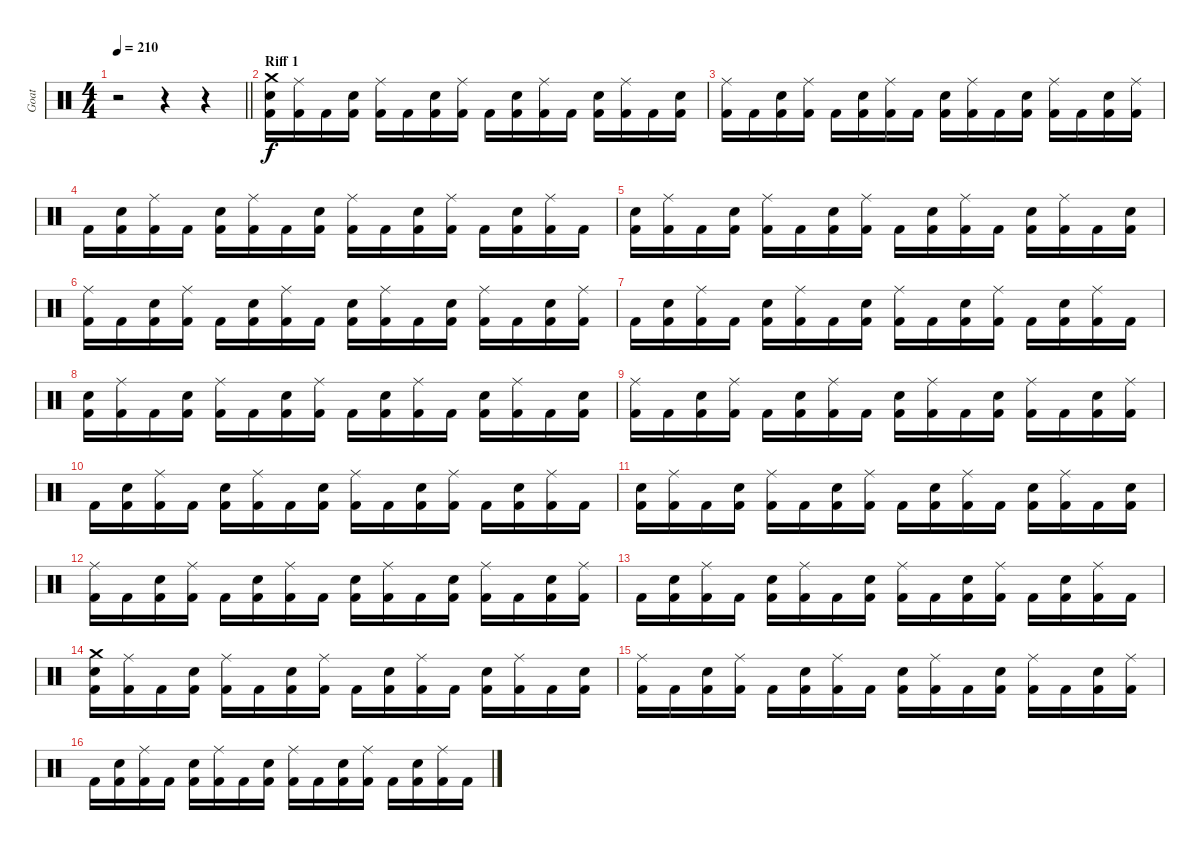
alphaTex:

\track ("Goat" "Goat") {instrument percussion}
\staff {score}
\articulation defaults
\ts (4 4)
\tempo 210
\clef neutral
\barLineRight lightlight
\ks c
r.2{dy f} r.4 r.4 |
\section ("" "Riff 1")
("Crash medium (hit)" "Snare (hit) 2" "Kick (hit) 2").16 ("Ride (middle)" "Kick (hit) 2").16 "Kick (hit) 2".16 ("Snare (hit) 2" "Kick (hit) 2").16 ("Ride (middle)" "Kick (hit) 2").16 "Kick (hit) 2".16 ("Snare (hit) 2" "Kick (hit) 2").16 ("Ride (middle)" "Kick (hit) 2").16 "Kick (hit) 2".16 ("Snare (hit) 2" "Kick (hit) 2").16 ("Ride (middle)" "Kick (hit) 2").16 "Kick (hit) 2".16 ("Snare (hit) 2" "Kick (hit) 2").16 ("Ride (middle)" "Kick (hit) 2").16 "Kick (hit) 2".16 ("Snare (hit) 2" "Kick (hit) 2").16 |
("Ride (middle)" "Kick (hit) 2").16 "Kick (hit) 2".16 ("Snare (hit) 2" "Kick (hit) 2").16 ("Ride (middle)" "Kick (hit) 2").16 "Kick (hit) 2".16 ("Snare (hit) 2" "Kick (hit) 2").16 ("Ride (middle)" "Kick (hit) 2").16 "Kick (hit) 2".16 ("Snare (hit) 2" "Kick (hit) 2").16 ("Ride (middle)" "Kick (hit) 2").16 "Kick (hit) 2".16 ("Snare (hit) 2" "Kick (hit) 2").16 ("Ride (middle)" "Kick (hit) 2").16 "Kick (hit) 2".16 ("Snare (hit) 2" "Kick (hit) 2").16 ("Ride (middle)" "Kick (hit) 2").16 |
"Kick (hit) 2".16 ("Snare (hit) 2" "Kick (hit) 2").16 ("Ride (middle)" "Kick (hit) 2").16 "Kick (hit) 2".16 ("Snare (hit) 2" "Kick (hit) 2").16 ("Ride (middle)" "Kick (hit) 2").16 "Kick (hit) 2".16 ("Snare (hit) 2" "Kick (hit) 2").16 ("Ride (middle)" "Kick (hit) 2").16 "Kick (hit) 2".16 ("Snare (hit) 2" "Kick (hit) 2").16 ("Ride (middle)" "Kick (hit) 2").16 "Kick (hit) 2".16 ("Snare (hit) 2" "Kick (hit) 2").16 ("Ride (middle)" "Kick (hit) 2").16 "Kick (hit) 2".16 |
("Snare (hit) 2" "Kick (hit) 2").16 ("Ride (middle)" "Kick (hit) 2").16 "Kick (hit) 2".16 ("Snare (hit) 2" "Kick (hit) 2").16 ("Ride (middle)" "Kick (hit) 2").16 "Kick (hit) 2".16 ("Snare (hit) 2" "Kick (hit) 2").16 ("Ride (middle)" "Kick (hit) 2").16 "Kick (hit) 2".16 ("Snare (hit) 2" "Kick (hit) 2").16 ("Ride (middle)" "Kick (hit) 2").16 "Kick (hit) 2".16 ("Snare (hit) 2" "Kick (hit) 2").16 ("Ride (middle)" "Kick (hit) 2").16 "Kick (hit) 2".16 ("Snare (hit) 2" "Kick (hit) 2").16 |
("Ride (middle)" "Kick (hit) 2").16 "Kick (hit) 2".16 ("Snare (hit) 2" "Kick (hit) 2").16 ("Ride (middle)" "Kick (hit) 2").16 "Kick (hit) 2".16 ("Snare (hit) 2" "Kick (hit) 2").16 ("Ride (middle)" "Kick (hit) 2").16 "Kick (hit) 2".16 ("Snare (hit) 2" "Kick (hit) 2").16 ("Ride (middle)" "Kick (hit) 2").16 "Kick (hit) 2".16 ("Snare (hit) 2" "Kick (hit) 2").16 ("Ride (middle)" "Kick (hit) 2").16 "Kick (hit) 2".16 ("Snare (hit) 2" "Kick (hit) 2").16 ("Ride (middle)" "Kick (hit) 2").16 |
"Kick (hit) 2".16 ("Snare (hit) 2" "Kick (hit) 2").16 ("Ride (middle)" "Kick (hit) 2").16 "Kick (hit) 2".16 ("Snare (hit) 2" "Kick (hit) 2").16 ("Ride (middle)" "Kick (hit) 2").16 "Kick (hit) 2".16 ("Snare (hit) 2" "Kick (hit) 2").16 ("Ride (middle)" "Kick (hit) 2").16 "Kick (hit) 2".16 ("Snare (hit) 2" "Kick (hit) 2").16 ("Ride (middle)" "Kick (hit) 2").16 "Kick (hit) 2".16 ("Snare (hit) 2" "Kick (hit) 2").16 ("Ride (middle)" "Kick (hit) 2").16 "Kick (hit) 2".16 |
("Snare (hit) 2" "Kick (hit) 2").16 ("Ride (middle)" "Kick (hit) 2").16 "Kick (hit) 2".16 ("Snare (hit) 2" "Kick (hit) 2").16 ("Ride (middle)" "Kick (hit) 2").16 "Kick (hit) 2".16 ("Snare (hit) 2" "Kick (hit) 2").16 ("Ride (middle)" "Kick (hit) 2").16 "Kick (hit) 2".16 ("Snare (hit) 2" "Kick (hit) 2").16 ("Ride (middle)" "Kick (hit) 2").16 "Kick (hit) 2".16 ("Snare (hit) 2" "Kick (hit) 2").16 ("Ride (middle)" "Kick (hit) 2").16 "Kick (hit) 2".16 ("Snare (hit) 2" "Kick (hit) 2").16 |
("Ride (middle)" "Kick (hit) 2").16 "Kick (hit) 2".16 ("Snare (hit) 2" "Kick (hit) 2").16 ("Ride (middle)" "Kick (hit) 2").16 "Kick (hit) 2".16 ("Snare (hit) 2" "Kick (hit) 2").16 ("Ride (middle)" "Kick (hit) 2").16 "Kick (hit) 2".16 ("Snare (hit) 2" "Kick (hit) 2").16 ("Ride (middle)" "Kick (hit) 2").16 "Kick (hit) 2".16 ("Snare (hit) 2" "Kick (hit) 2").16 ("Ride (middle)" "Kick (hit) 2").16 "Kick (hit) 2".16 ("Snare (hit) 2" "Kick (hit) 2").16 ("Ride (middle)" "Kick (hit) 2").16 |
"Kick (hit) 2".16 ("Snare (hit) 2" "Kick (hit) 2").16 ("Ride (middle)" "Kick (hit) 2").16 "Kick (hit) 2".16 ("Snare (hit) 2" "Kick (hit) 2").16 ("Ride (middle)" "Kick (hit) 2").16 "Kick (hit) 2".16 ("Snare (hit) 2" "Kick (hit) 2").16 ("Ride (middle)" "Kick (hit) 2").16 "Kick (hit) 2".16 ("Snare (hit) 2" "Kick (hit) 2").16 ("Ride (middle)" "Kick (hit) 2").16 "Kick (hit) 2".16 ("Snare (hit) 2" "Kick (hit) 2").16 ("Ride (middle)" "Kick (hit) 2").16 "Kick (hit) 2".16 |
("Snare (hit) 2" "Kick (hit) 2").16 ("Ride (middle)" "Kick (hit) 2").16 "Kick (hit) 2".16 ("Snare (hit) 2" "Kick (hit) 2").16 ("Ride (middle)" "Kick (hit) 2").16 "Kick (hit) 2".16 ("Snare (hit) 2" "Kick (hit) 2").16 ("Ride (middle)" "Kick (hit) 2").16 "Kick (hit) 2".16 ("Snare (hit) 2" "Kick (hit) 2").16 ("Ride (middle)" "Kick (hit) 2").16 "Kick (hit) 2".16 ("Snare (hit) 2" "Kick (hit) 2").16 ("Ride (middle)" "Kick (hit) 2").16 "Kick (hit) 2".16 ("Snare (hit) 2" "Kick (hit) 2").16 |
("Ride (middle)" "Kick (hit) 2").16 "Kick (hit) 2".16 ("Snare (hit) 2" "Kick (hit) 2").16 ("Ride (middle)" "Kick (hit) 2").16 "Kick (hit) 2".16 ("Snare (hit) 2" "Kick (hit) 2").16 ("Ride (middle)" "Kick (hit) 2").16 "Kick (hit) 2".16 ("Snare (hit) 2" "Kick (hit) 2").16 ("Ride (middle)" "Kick (hit) 2").16 "Kick (hit) 2".16 ("Snare (hit) 2" "Kick (hit) 2").16 ("Ride (middle)" "Kick (hit) 2").16 "Kick (hit) 2".16 ("Snare (hit) 2" "Kick (hit) 2").16 ("Ride (middle)" "Kick (hit) 2").16 |
"Kick (hit) 2".16 ("Snare (hit) 2" "Kick (hit) 2").16 ("Ride (middle)" "Kick (hit) 2").16 "Kick (hit) 2".16 ("Snare (hit) 2" "Kick (hit) 2").16 ("Ride (middle)" "Kick (hit) 2").16 "Kick (hit) 2".16 ("Snare (hit) 2" "Kick (hit) 2").16 ("Ride (middle)" "Kick (hit) 2").16 "Kick (hit) 2".16 ("Snare (hit) 2" "Kick (hit) 2").16 ("Ride (middle)" "Kick (hit) 2").16 "Kick (hit) 2".16 ("Snare (hit) 2" "Kick (hit) 2").16 ("Ride (middle)" "Kick (hit) 2").16 "Kick (hit) 2".16 |
("Crash medium (hit)" "Snare (hit) 2" "Kick (hit) 2").16 ("Ride (middle)" "Kick (hit) 2").16 "Kick (hit) 2".16 ("Snare (hit) 2" "Kick (hit) 2").16 ("Ride (middle)" "Kick (hit) 2").16 "Kick (hit) 2".16 ("Snare (hit) 2" "Kick (hit) 2").16 ("Ride (middle)" "Kick (hit) 2").16 "Kick (hit) 2".16 ("Snare (hit) 2" "Kick (hit) 2").16 ("Ride (middle)" "Kick (hit) 2").16 "Kick (hit) 2".16 ("Snare (hit) 2" "Kick (hit) 2").16 ("Ride (middle)" "Kick (hit) 2").16 "Kick (hit) 2".16 ("Snare (hit) 2" "Kick (hit) 2").16 |
("Ride (middle)" "Kick (hit) 2").16 "Kick (hit) 2".16 ("Snare (hit) 2" "Kick (hit) 2").16 ("Ride (middle)" "Kick (hit) 2").16 "Kick (hit) 2".16 ("Snare (hit) 2" "Kick (hit) 2").16 ("Ride (middle)" "Kick (hit) 2").16 "Kick (hit) 2".16 ("Snare (hit) 2" "Kick (hit) 2").16 ("Ride (middle)" "Kick (hit) 2").16 "Kick (hit) 2".16 ("Snare (hit) 2" "Kick (hit) 2").16 ("Ride (middle)" "Kick (hit) 2").16 "Kick (hit) 2".16 ("Snare (hit) 2" "Kick (hit) 2").16 ("Ride (middle)" "Kick (hit) 2").16 |
"Kick (hit) 2".16 ("Snare (hit) 2" "Kick (hit) 2").16 ("Ride (middle)" "Kick (hit) 2").16 "Kick (hit) 2".16 ("Snare (hit) 2" "Kick (hit) 2").16 ("Ride (middle)" "Kick (hit) 2").16 "Kick (hit) 2".16 ("Snare (hit) 2" "Kick (hit) 2").16 ("Ride (middle)" "Kick (hit) 2").16 "Kick (hit) 2".16 ("Snare (hit) 2" "Kick (hit) 2").16 ("Ride (middle)" "Kick (hit) 2").16 "Kick (hit) 2".16 ("Snare (hit) 2" "Kick (hit) 2").16 ("Ride (middle)" "Kick (hit) 2").16 "Kick (hit) 2".16
